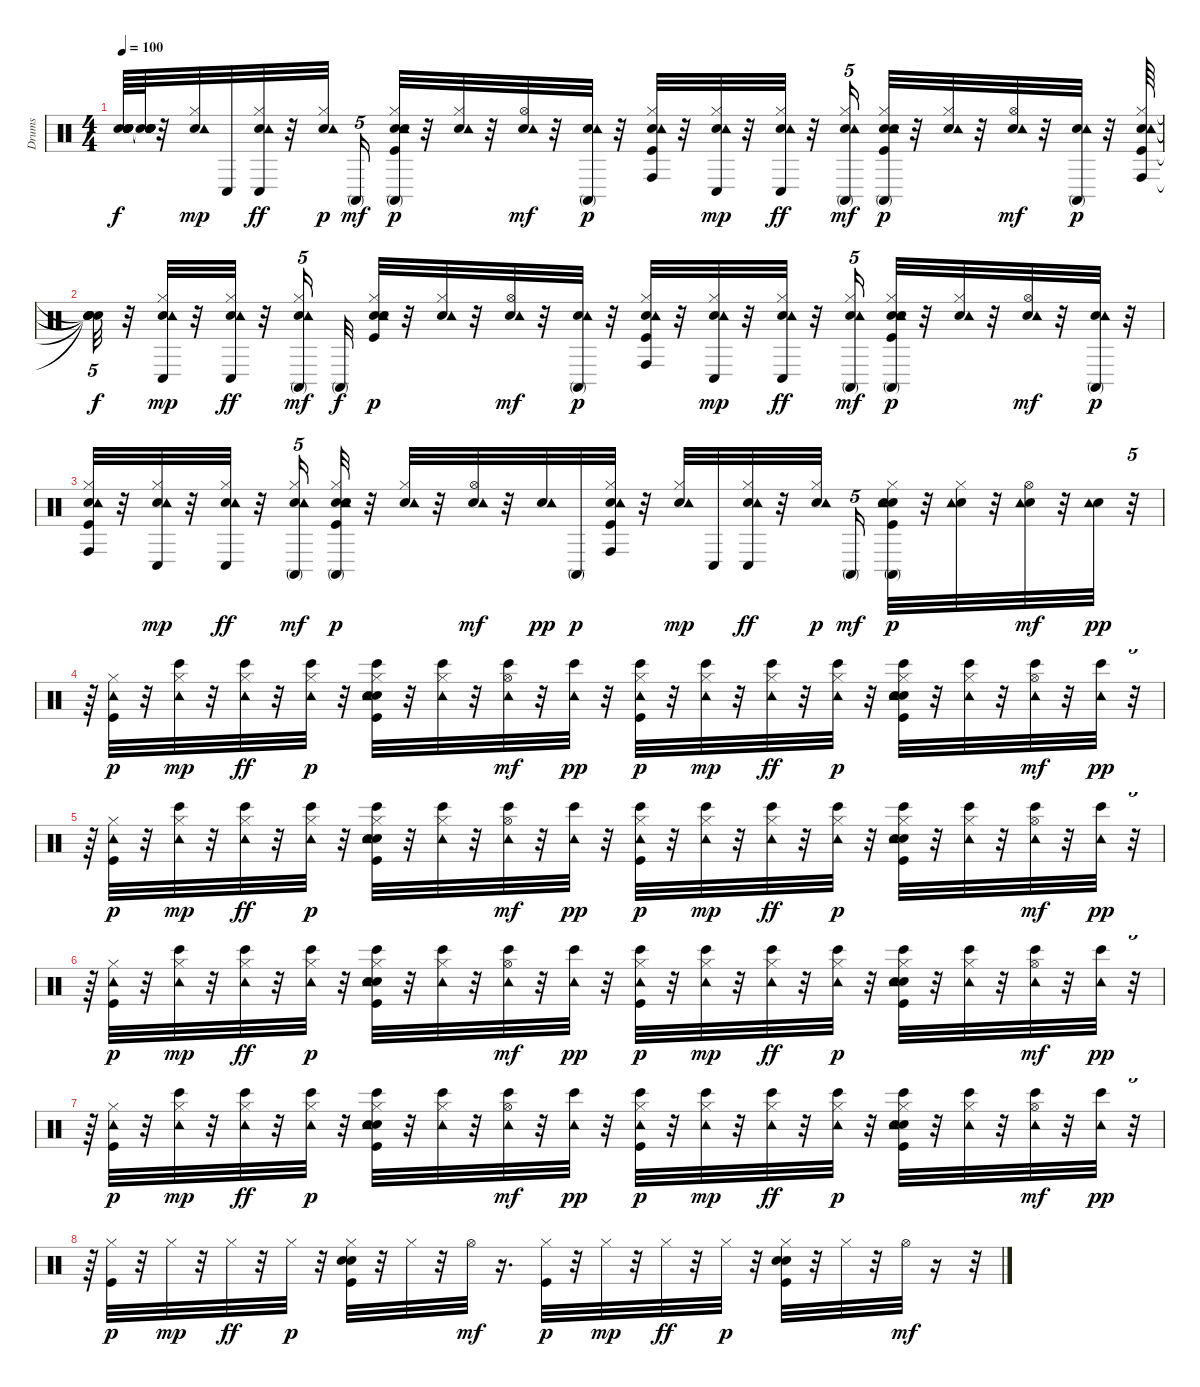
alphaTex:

\track ("Drums" "Drums") {instrument percussion}
\staff {score}
\articulation defaults
\ts (4 4)
\tempo 100
\clef neutral
\ks c
("Snare (hit)"{t} "Snare (hit)"{t} "Snare (hit)"{t} "Snare (hit)"{t} "Snare (hit)"{t}).64{dy f} ("Snare (hit)"{t} "Snare (hit)"{t} "Snare (hit)"{t} "Snare (hit)"{t} "Snare (hit)"{t}).64 r.32 ("Hand Clap (hit)" "Tambourine (hit)" "Hi-Hat (closed)").32{dy mp} "Conga low (hit)".32 ("Conga low (hit)" "Hand Clap (hit)" "Tambourine (hit)" "Hi-Hat (closed)").32{dy ff} r.32 ("Hand Clap (hit)" "Tambourine (hit)" "Hi-Hat (closed)").32{dy p} "Conga high (mute)".16{tu (5 4) dy mf} ("Conga high (mute)" "Hand Clap (hit)" "Snare (hit) 2" "Tambourine (hit)" "Kick (hit)" "Hi-Hat (closed)").32{dy p} r.32 ("Hand Clap (hit)" "Tambourine (hit)" "Hi-Hat (closed)").32 r.32 ("Hand Clap (hit)" "Tambourine (hit)" "Hi-Hat (open)").32{dy mf} r.32 ("Hand Clap (hit)" "Tambourine (hit)" "Conga high (mute)").32{dy p} r.32 ("Conga high (hit)" "Hand Clap (hit)" "Tambourine (hit)" "Kick (hit)" "Hi-Hat (closed)").32 r.32 ("Hand Clap (hit)" "Tambourine (hit)" "Hi-Hat (closed)" "Conga low (hit)").32{dy mp} r.32 ("Conga low (hit)" "Hand Clap (hit)" "Tambourine (hit)" "Hi-Hat (closed)").32{dy ff} r.32 ("Hand Clap (hit)" "Tambourine (hit)" "Hi-Hat (closed)" "Conga high (mute)").16{tu (5 4) dy mf} ("Conga high (mute)" "Hand Clap (hit)" "Snare (hit) 2" "Tambourine (hit)" "Kick (hit)" "Hi-Hat (closed)").32{dy p} r.32 ("Hand Clap (hit)" "Tambourine (hit)" "Hi-Hat (closed)").32 r.32 ("Hand Clap (hit)" "Tambourine (hit)" "Hi-Hat (open)").32{dy mf} r.32 ("Hand Clap (hit)" "Tambourine (hit)" "Conga high (mute)").32{dy p} r.32 ("Conga high (hit)" "Hand Clap (hit)" "Tambourine (hit)" "Kick (hit)" "Hi-Hat (closed)").64 |
("Snare (hit)"{t} "Snare (hit)"{t} "Snare (hit)"{t} "Snare (hit)"{t} "Snare (hit)"{t}).32{tu (5 4) dy f} r.32 ("Hand Clap (hit)" "Tambourine (hit)" "Hi-Hat (closed)" "Conga low (hit)").32{dy mp} r.32 ("Conga low (hit)" "Hand Clap (hit)" "Tambourine (hit)" "Hi-Hat (closed)").32{dy ff} r.32 ("Hand Clap (hit)" "Tambourine (hit)" "Hi-Hat (closed)" "Conga high (mute)").16{tu (5 4) dy mf} "Conga high (mute)".32{dy f} ("Hand Clap (hit)" "Snare (hit) 2" "Tambourine (hit)" "Kick (hit)" "Hi-Hat (closed)").32{dy p} r.32 ("Hand Clap (hit)" "Tambourine (hit)" "Hi-Hat (closed)").32 r.32 ("Hand Clap (hit)" "Tambourine (hit)" "Hi-Hat (open)").32{dy mf} r.32 ("Hand Clap (hit)" "Tambourine (hit)" "Conga high (mute)").32{dy p} r.32 ("Conga high (hit)" "Hand Clap (hit)" "Tambourine (hit)" "Kick (hit)" "Hi-Hat (closed)").32 r.32 ("Hand Clap (hit)" "Tambourine (hit)" "Hi-Hat (closed)" "Conga low (hit)").32{dy mp} r.32 ("Conga low (hit)" "Hand Clap (hit)" "Tambourine (hit)" "Hi-Hat (closed)").32{dy ff} r.32 ("Hand Clap (hit)" "Tambourine (hit)" "Hi-Hat (closed)" "Conga high (mute)").16{tu (5 4) dy mf} ("Conga high (mute)" "Hand Clap (hit)" "Snare (hit) 2" "Tambourine (hit)" "Kick (hit)" "Hi-Hat (closed)").32{dy p} r.32 ("Hand Clap (hit)" "Tambourine (hit)" "Hi-Hat (closed)").32 r.32 ("Hand Clap (hit)" "Tambourine (hit)" "Hi-Hat (open)").32{dy mf} r.32 ("Hand Clap (hit)" "Tambourine (hit)" "Conga high (mute)").32{dy p} r.32 |
("Conga high (hit)" "Hand Clap (hit)" "Tambourine (hit)" "Kick (hit)" "Hi-Hat (closed)").32 r.32 ("Hand Clap (hit)" "Tambourine (hit)" "Hi-Hat (closed)" "Conga low (hit)").32{dy mp} r.32 ("Conga low (hit)" "Hand Clap (hit)" "Tambourine (hit)" "Hi-Hat (closed)").32{dy ff} r.32 ("Hand Clap (hit)" "Tambourine (hit)" "Hi-Hat (closed)" "Conga high (mute)").16{tu (5 4) dy mf} ("Conga high (mute)" "Hand Clap (hit)" "Snare (hit) 2" "Tambourine (hit)" "Kick (hit)" "Hi-Hat (closed)").32{dy p} r.32 ("Hand Clap (hit)" "Tambourine (hit)" "Hi-Hat (closed)").32 r.32 ("Hand Clap (hit)" "Tambourine (hit)" "Hi-Hat (open)").32{dy mf} r.32 ("Hand Clap (hit)" "Tambourine (hit)").32{dy pp} "Conga high (mute)".32{dy p} ("Conga high (hit)" "Hand Clap (hit)" "Tambourine (hit)" "Kick (hit)" "Hi-Hat (closed)").32 r.32 ("Hand Clap (hit)" "Tambourine (hit)" "Hi-Hat (closed)").32{dy mp} "Conga low (hit)".32 ("Conga low (hit)" "Hand Clap (hit)" "Tambourine (hit)" "Hi-Hat (closed)").32{dy ff} r.32 ("Hand Clap (hit)" "Tambourine (hit)" "Hi-Hat (closed)").32{dy p} "Conga high (mute)".16{tu (5 4) dy mf} ("Conga high (mute)" "Hand Clap (hit)" "Snare (hit) 2" "Tambourine (hit)" "Kick (hit)" "Hi-Hat (closed)").32{dy p} r.32 ("Hand Clap (hit)" "Tambourine (hit)" "Hi-Hat (closed)").32 r.32 ("Hand Clap (hit)" "Tambourine (hit)" "Hi-Hat (open)").32{dy mf} r.32 ("Hand Clap (hit)" "Tambourine (hit)").32{dy pp} r.32{tu (5 4)} |
r.64 ("Tambourine (hit)" "Kick (hit)" "Hi-Hat (closed)").32{dy p} r.32 ("Bongo High (hit)" "Tambourine (hit)" "Hi-Hat (closed)").32{dy mp} r.32 ("Bongo High (hit)" "Tambourine (hit)" "Hi-Hat (closed)").32{dy ff} r.32 ("Bongo High (hit)" "Tambourine (hit)" "Hi-Hat (closed)").32{dy p} r.32 ("Hand Clap (hit)" "Snare (hit) 2" "Bongo High (hit)" "Tambourine (hit)" "Kick (hit)" "Hi-Hat (closed)").32 r.32 ("Bongo High (hit)" "Tambourine (hit)" "Hi-Hat (closed)").32 r.32 ("Bongo High (hit)" "Tambourine (hit)" "Hi-Hat (open)").32{dy mf} r.32 ("Bongo High (hit)" "Tambourine (hit)").32{dy pp} r.32 ("Bongo High (hit)" "Tambourine (hit)" "Kick (hit)" "Hi-Hat (closed)").32{dy p} r.32 ("Bongo High (hit)" "Tambourine (hit)" "Hi-Hat (closed)").32{dy mp} r.32 ("Bongo High (hit)" "Tambourine (hit)" "Hi-Hat (closed)").32{dy ff} r.32 ("Bongo High (hit)" "Tambourine (hit)" "Hi-Hat (closed)").32{dy p} r.32 ("Hand Clap (hit)" "Snare (hit) 2" "Bongo High (hit)" "Tambourine (hit)" "Kick (hit)" "Hi-Hat (closed)").32 r.32 ("Bongo High (hit)" "Tambourine (hit)" "Hi-Hat (closed)").32 r.32 ("Bongo High (hit)" "Tambourine (hit)" "Hi-Hat (open)").32{dy mf} r.32 ("Bongo High (hit)" "Tambourine (hit)").32{dy pp} r.32{tu (5 4)} |
r.64 ("Tambourine (hit)" "Kick (hit)" "Hi-Hat (closed)").32{dy p} r.32 ("Bongo High (hit)" "Tambourine (hit)" "Hi-Hat (closed)").32{dy mp} r.32 ("Bongo High (hit)" "Tambourine (hit)" "Hi-Hat (closed)").32{dy ff} r.32 ("Bongo High (hit)" "Tambourine (hit)" "Hi-Hat (closed)").32{dy p} r.32 ("Hand Clap (hit)" "Snare (hit) 2" "Bongo High (hit)" "Tambourine (hit)" "Kick (hit)" "Hi-Hat (closed)").32 r.32 ("Bongo High (hit)" "Tambourine (hit)" "Hi-Hat (closed)").32 r.32 ("Bongo High (hit)" "Tambourine (hit)" "Hi-Hat (open)").32{dy mf} r.32 ("Bongo High (hit)" "Tambourine (hit)").32{dy pp} r.32 ("Bongo High (hit)" "Tambourine (hit)" "Kick (hit)" "Hi-Hat (closed)").32{dy p} r.32 ("Bongo High (hit)" "Tambourine (hit)" "Hi-Hat (closed)").32{dy mp} r.32 ("Bongo High (hit)" "Tambourine (hit)" "Hi-Hat (closed)").32{dy ff} r.32 ("Bongo High (hit)" "Tambourine (hit)" "Hi-Hat (closed)").32{dy p} r.32 ("Hand Clap (hit)" "Snare (hit) 2" "Bongo High (hit)" "Tambourine (hit)" "Kick (hit)" "Hi-Hat (closed)").32 r.32 ("Bongo High (hit)" "Tambourine (hit)" "Hi-Hat (closed)").32 r.32 ("Bongo High (hit)" "Tambourine (hit)" "Hi-Hat (open)").32{dy mf} r.32 ("Bongo High (hit)" "Tambourine (hit)").32{dy pp} r.32{tu (5 4)} |
r.64 ("Tambourine (hit)" "Kick (hit)" "Hi-Hat (closed)").32{dy p} r.32 ("Bongo High (hit)" "Tambourine (hit)" "Hi-Hat (closed)").32{dy mp} r.32 ("Bongo High (hit)" "Tambourine (hit)" "Hi-Hat (closed)").32{dy ff} r.32 ("Bongo High (hit)" "Tambourine (hit)" "Hi-Hat (closed)").32{dy p} r.32 ("Hand Clap (hit)" "Snare (hit) 2" "Bongo High (hit)" "Tambourine (hit)" "Kick (hit)" "Hi-Hat (closed)").32 r.32 ("Bongo High (hit)" "Tambourine (hit)" "Hi-Hat (closed)").32 r.32 ("Bongo High (hit)" "Tambourine (hit)" "Hi-Hat (open)").32{dy mf} r.32 ("Bongo High (hit)" "Tambourine (hit)").32{dy pp} r.32 ("Bongo High (hit)" "Tambourine (hit)" "Kick (hit)" "Hi-Hat (closed)").32{dy p} r.32 ("Bongo High (hit)" "Tambourine (hit)" "Hi-Hat (closed)").32{dy mp} r.32 ("Bongo High (hit)" "Tambourine (hit)" "Hi-Hat (closed)").32{dy ff} r.32 ("Bongo High (hit)" "Tambourine (hit)" "Hi-Hat (closed)").32{dy p} r.32 ("Hand Clap (hit)" "Snare (hit) 2" "Bongo High (hit)" "Tambourine (hit)" "Kick (hit)" "Hi-Hat (closed)").32 r.32 ("Bongo High (hit)" "Tambourine (hit)" "Hi-Hat (closed)").32 r.32 ("Bongo High (hit)" "Tambourine (hit)" "Hi-Hat (open)").32{dy mf} r.32 ("Bongo High (hit)" "Tambourine (hit)").32{dy pp} r.32{tu (5 4)} |
r.64 ("Tambourine (hit)" "Kick (hit)" "Hi-Hat (closed)").32{dy p} r.32 ("Bongo High (hit)" "Tambourine (hit)" "Hi-Hat (closed)").32{dy mp} r.32 ("Bongo High (hit)" "Tambourine (hit)" "Hi-Hat (closed)").32{dy ff} r.32 ("Bongo High (hit)" "Tambourine (hit)" "Hi-Hat (closed)").32{dy p} r.32 ("Hand Clap (hit)" "Snare (hit) 2" "Bongo High (hit)" "Tambourine (hit)" "Kick (hit)" "Hi-Hat (closed)").32 r.32 ("Bongo High (hit)" "Tambourine (hit)" "Hi-Hat (closed)").32 r.32 ("Bongo High (hit)" "Tambourine (hit)" "Hi-Hat (open)").32{dy mf} r.32 ("Bongo High (hit)" "Tambourine (hit)").32{dy pp} r.32 ("Bongo High (hit)" "Tambourine (hit)" "Kick (hit)" "Hi-Hat (closed)").32{dy p} r.32 ("Bongo High (hit)" "Tambourine (hit)" "Hi-Hat (closed)").32{dy mp} r.32 ("Bongo High (hit)" "Tambourine (hit)" "Hi-Hat (closed)").32{dy ff} r.32 ("Bongo High (hit)" "Tambourine (hit)" "Hi-Hat (closed)").32{dy p} r.32 ("Hand Clap (hit)" "Snare (hit) 2" "Bongo High (hit)" "Tambourine (hit)" "Kick (hit)" "Hi-Hat (closed)").32 r.32 ("Bongo High (hit)" "Tambourine (hit)" "Hi-Hat (closed)").32 r.32 ("Bongo High (hit)" "Tambourine (hit)" "Hi-Hat (open)").32{dy mf} r.32 ("Bongo High (hit)" "Tambourine (hit)").32{dy pp} r.32{tu (5 4)} |
r.64 ("Kick (hit)" "Hi-Hat (closed)").32{dy p} r.32 "Hi-Hat (closed)".32{dy mp} r.32 "Hi-Hat (closed)".32{dy ff} r.32 "Hi-Hat (closed)".32{dy p} r.32 ("Hand Clap (hit)" "Snare (hit) 2" "Kick (hit)" "Hi-Hat (closed)").32 r.32 "Hi-Hat (closed)".32 r.32 "Hi-Hat (open)".32{dy mf} r.16{d} ("Kick (hit)" "Hi-Hat (closed)").32{dy p} r.32 "Hi-Hat (closed)".32{dy mp} r.32 "Hi-Hat (closed)".32{dy ff} r.32 "Hi-Hat (closed)".32{dy p} r.32 ("Hand Clap (hit)" "Snare (hit) 2" "Kick (hit)" "Hi-Hat (closed)").32 r.32 "Hi-Hat (closed)".32 r.32 "Hi-Hat (open)".32{dy mf} r.16 r.32{tu (5 4)}
